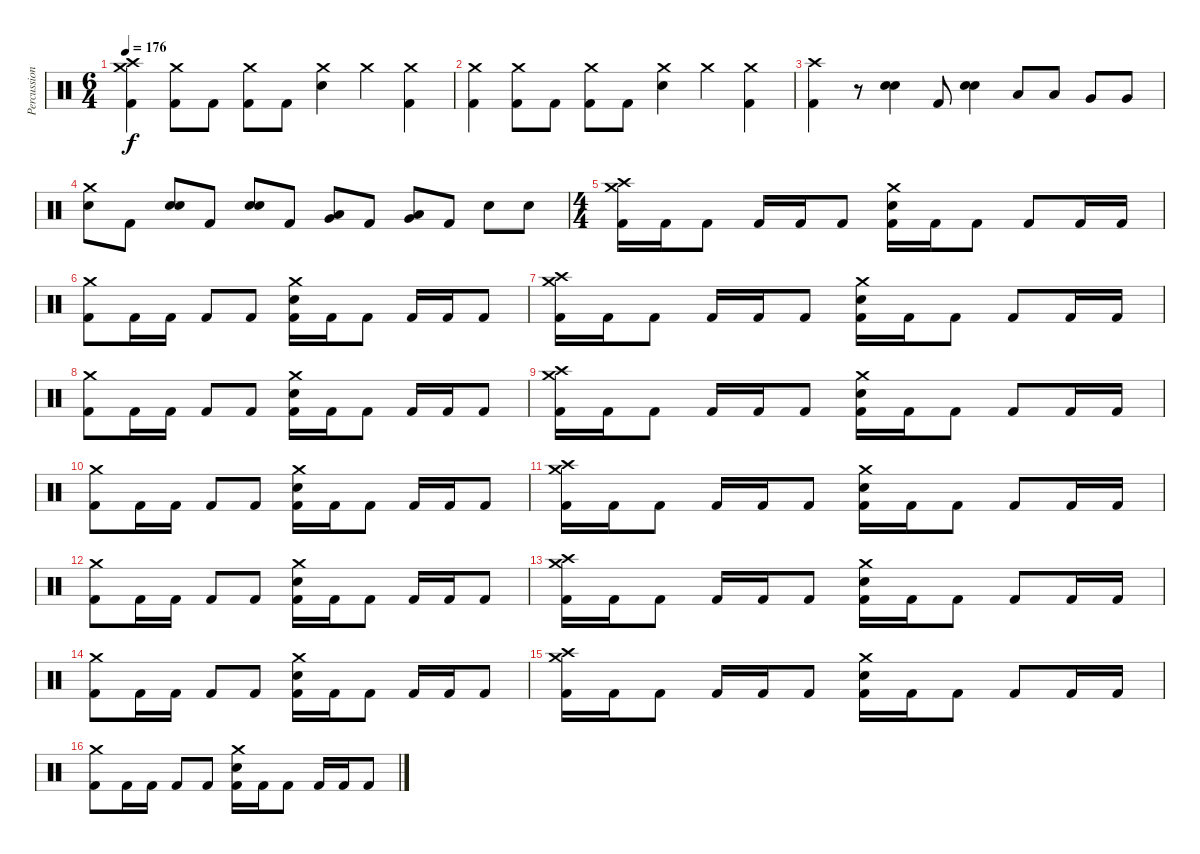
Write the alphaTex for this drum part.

\track ("Percussion" "Percussion") {instrument percussion}
\staff {score}
\articulation defaults
\ts (6 4)
\tempo 176
\clef neutral
\ks c
("Crash high (hit)" "Crash medium (hit)" "Kick (hit) 2").4{dy f} ("Crash medium (hit)" "Kick (hit) 2").8 "Kick (hit) 2".8 ("Crash medium (hit)" "Kick (hit) 2").8 "Kick (hit) 2".8 ("Crash medium (hit)" "Snare (hit) 2").4 "Crash medium (hit)".4 ("Crash medium (hit)" "Kick (hit) 2").4 |
("Crash medium (hit)" "Kick (hit) 2").4 ("Crash medium (hit)" "Kick (hit) 2").8 "Kick (hit) 2".8 ("Crash medium (hit)" "Kick (hit) 2").8 "Kick (hit) 2".8 ("Crash medium (hit)" "Snare (hit) 2").4 "Crash medium (hit)".4 ("Crash medium (hit)" "Kick (hit) 2").4 |
("Crash high (hit)" "Kick (hit) 2").4 r.8 ("Snare (hit) 2" "Snare (hit) 2").4 "Kick (hit) 2".8 ("Snare (hit) 2" "Snare (hit) 2").4 "Low Tom (hit)".8 "Low Tom (hit)".8 "Very Low Tom (hit)".8 "Very Low Tom (hit)".8 |
("Crash medium (hit)" "Snare (hit) 2").8 "Kick (hit) 2".8 ("Snare (hit) 2" "Snare (hit) 2").8 "Kick (hit) 2".8 ("Snare (hit) 2" "Snare (hit) 2").8 "Kick (hit) 2".8 ("Low Tom (hit)" "Very Low Tom (hit)").8 "Kick (hit) 2".8 ("Very Low Tom (hit)" "Low Floor Tom (hit)").8 "Kick (hit) 2".8 "Snare (hit) 2".8 "Snare (hit) 2".8 |
\ts (4 4)
("Crash high (hit)" "Crash medium (hit)" "Kick (hit) 2").16 "Kick (hit) 2".16 "Kick (hit) 2".8 "Kick (hit) 2".16 "Kick (hit) 2".16 "Kick (hit) 2".8 ("Crash medium (hit)" "Snare (hit) 2" "Kick (hit) 2").16 "Kick (hit) 2".16 "Kick (hit) 2".8 "Kick (hit) 2".8 "Kick (hit) 2".16 "Kick (hit) 2".16 |
("Crash medium (hit)" "Kick (hit) 2").8 "Kick (hit) 2".16 "Kick (hit) 2".16 "Kick (hit) 2".8 "Kick (hit) 2".8 ("Crash medium (hit)" "Snare (hit) 2" "Kick (hit) 2").16 "Kick (hit) 2".16 "Kick (hit) 2".8 "Kick (hit) 2".16 "Kick (hit) 2".16 "Kick (hit) 2".8 |
("Crash high (hit)" "Crash medium (hit)" "Kick (hit) 2").16 "Kick (hit) 2".16 "Kick (hit) 2".8 "Kick (hit) 2".16 "Kick (hit) 2".16 "Kick (hit) 2".8 ("Crash medium (hit)" "Snare (hit) 2" "Kick (hit) 2").16 "Kick (hit) 2".16 "Kick (hit) 2".8 "Kick (hit) 2".8 "Kick (hit) 2".16 "Kick (hit) 2".16 |
("Crash medium (hit)" "Kick (hit) 2").8 "Kick (hit) 2".16 "Kick (hit) 2".16 "Kick (hit) 2".8 "Kick (hit) 2".8 ("Crash medium (hit)" "Snare (hit) 2" "Kick (hit) 2").16 "Kick (hit) 2".16 "Kick (hit) 2".8 "Kick (hit) 2".16 "Kick (hit) 2".16 "Kick (hit) 2".8 |
("Crash high (hit)" "Crash medium (hit)" "Kick (hit) 2").16 "Kick (hit) 2".16 "Kick (hit) 2".8 "Kick (hit) 2".16 "Kick (hit) 2".16 "Kick (hit) 2".8 ("Crash medium (hit)" "Snare (hit) 2" "Kick (hit) 2").16 "Kick (hit) 2".16 "Kick (hit) 2".8 "Kick (hit) 2".8 "Kick (hit) 2".16 "Kick (hit) 2".16 |
("Crash medium (hit)" "Kick (hit) 2").8 "Kick (hit) 2".16 "Kick (hit) 2".16 "Kick (hit) 2".8 "Kick (hit) 2".8 ("Crash medium (hit)" "Snare (hit) 2" "Kick (hit) 2").16 "Kick (hit) 2".16 "Kick (hit) 2".8 "Kick (hit) 2".16 "Kick (hit) 2".16 "Kick (hit) 2".8 |
("Crash high (hit)" "Crash medium (hit)" "Kick (hit) 2").16 "Kick (hit) 2".16 "Kick (hit) 2".8 "Kick (hit) 2".16 "Kick (hit) 2".16 "Kick (hit) 2".8 ("Crash medium (hit)" "Snare (hit) 2" "Kick (hit) 2").16 "Kick (hit) 2".16 "Kick (hit) 2".8 "Kick (hit) 2".8 "Kick (hit) 2".16 "Kick (hit) 2".16 |
("Crash medium (hit)" "Kick (hit) 2").8 "Kick (hit) 2".16 "Kick (hit) 2".16 "Kick (hit) 2".8 "Kick (hit) 2".8 ("Crash medium (hit)" "Snare (hit) 2" "Kick (hit) 2").16 "Kick (hit) 2".16 "Kick (hit) 2".8 "Kick (hit) 2".16 "Kick (hit) 2".16 "Kick (hit) 2".8 |
("Crash high (hit)" "Crash medium (hit)" "Kick (hit) 2").16 "Kick (hit) 2".16 "Kick (hit) 2".8 "Kick (hit) 2".16 "Kick (hit) 2".16 "Kick (hit) 2".8 ("Crash medium (hit)" "Snare (hit) 2" "Kick (hit) 2").16 "Kick (hit) 2".16 "Kick (hit) 2".8 "Kick (hit) 2".8 "Kick (hit) 2".16 "Kick (hit) 2".16 |
("Crash medium (hit)" "Kick (hit) 2").8 "Kick (hit) 2".16 "Kick (hit) 2".16 "Kick (hit) 2".8 "Kick (hit) 2".8 ("Crash medium (hit)" "Snare (hit) 2" "Kick (hit) 2").16 "Kick (hit) 2".16 "Kick (hit) 2".8 "Kick (hit) 2".16 "Kick (hit) 2".16 "Kick (hit) 2".8 |
("Crash high (hit)" "Crash medium (hit)" "Kick (hit) 2").16 "Kick (hit) 2".16 "Kick (hit) 2".8 "Kick (hit) 2".16 "Kick (hit) 2".16 "Kick (hit) 2".8 ("Crash medium (hit)" "Snare (hit) 2" "Kick (hit) 2").16 "Kick (hit) 2".16 "Kick (hit) 2".8 "Kick (hit) 2".8 "Kick (hit) 2".16 "Kick (hit) 2".16 |
("Crash medium (hit)" "Kick (hit) 2").8 "Kick (hit) 2".16 "Kick (hit) 2".16 "Kick (hit) 2".8 "Kick (hit) 2".8 ("Crash medium (hit)" "Snare (hit) 2" "Kick (hit) 2").16 "Kick (hit) 2".16 "Kick (hit) 2".8 "Kick (hit) 2".16 "Kick (hit) 2".16 "Kick (hit) 2".8
